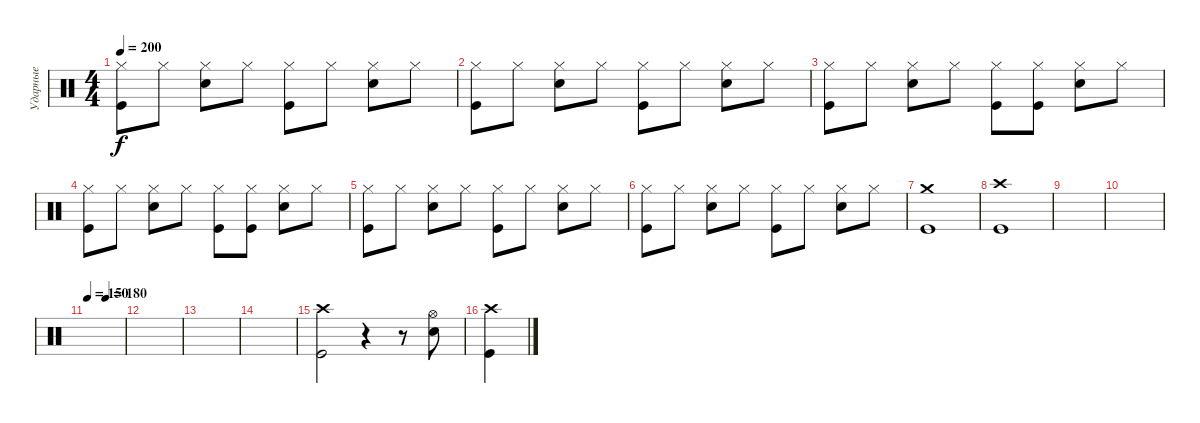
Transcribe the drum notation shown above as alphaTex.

\track ("Ударные" "Ударные") {instrument percussion}
\staff {score}
\articulation defaults
\ts (4 4)
\tempo 200
\clef neutral
\ks c
("Kick (hit)" "Hi-Hat (closed)").8{dy f} "Hi-Hat (closed)".8 ("Electric Snare (hit)" "Hi-Hat (closed)").8 "Hi-Hat (closed)".8 ("Kick (hit)" "Hi-Hat (closed)").8 "Hi-Hat (closed)".8 ("Electric Snare (hit)" "Hi-Hat (closed)").8 "Hi-Hat (closed)".8 |
("Kick (hit)" "Hi-Hat (closed)").8 "Hi-Hat (closed)".8 ("Electric Snare (hit)" "Hi-Hat (closed)").8 "Hi-Hat (closed)".8 ("Kick (hit)" "Hi-Hat (closed)").8 "Hi-Hat (closed)".8 ("Electric Snare (hit)" "Hi-Hat (closed)").8 "Hi-Hat (closed)".8 |
("Kick (hit)" "Hi-Hat (closed)").8 "Hi-Hat (closed)".8 ("Electric Snare (hit)" "Hi-Hat (closed)").8 "Hi-Hat (closed)".8 ("Kick (hit)" "Hi-Hat (closed)").8 ("Kick (hit)" "Hi-Hat (closed)").8 ("Electric Snare (hit)" "Hi-Hat (closed)").8 "Hi-Hat (closed)".8 |
("Kick (hit)" "Hi-Hat (closed)").8 "Hi-Hat (closed)".8 ("Electric Snare (hit)" "Hi-Hat (closed)").8 "Hi-Hat (closed)".8 ("Kick (hit)" "Hi-Hat (closed)").8 ("Kick (hit)" "Hi-Hat (closed)").8 ("Electric Snare (hit)" "Hi-Hat (closed)").8 "Hi-Hat (closed)".8 |
("Kick (hit)" "Hi-Hat (closed)").8 "Hi-Hat (closed)".8 ("Electric Snare (hit)" "Hi-Hat (closed)").8 "Hi-Hat (closed)".8 ("Kick (hit)" "Hi-Hat (closed)").8 "Hi-Hat (closed)".8 ("Electric Snare (hit)" "Hi-Hat (closed)").8 "Hi-Hat (closed)".8 |
("Kick (hit)" "Hi-Hat (closed)").8 "Hi-Hat (closed)".8 ("Electric Snare (hit)" "Hi-Hat (closed)").8 "Hi-Hat (closed)".8 ("Kick (hit)" "Hi-Hat (closed)").8 "Hi-Hat (closed)".8 ("Electric Snare (hit)" "Hi-Hat (closed)").8 "Hi-Hat (closed)".8 |
("Kick (hit)" "Crash medium (hit)").1 |
("Kick (hit)" "Crash high (hit)").1 |
|
|
\tempo 150
\tempo (180 0.5)
|
|
|
|
("Kick (hit)" "Crash high (hit)").2 r.4 r.8 ("Electric Snare (hit)" "Hi-Hat (open)").8 |
("Kick (hit)" "Crash high (hit)").4
